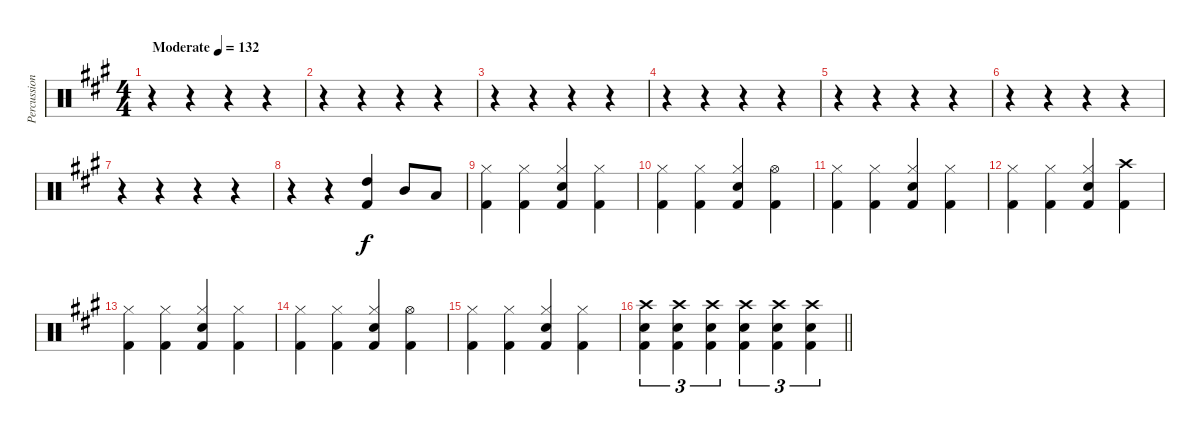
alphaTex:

\track ("Percussion" "Percussion") {instrument percussion}
\staff {score}
\articulation defaults
\ts (4 4)
\tempo (132 "Moderate")
\clef neutral
\ks a
r.4{dy f} r.4 r.4 r.4 |
r.4 r.4 r.4 r.4 |
r.4 r.4 r.4 r.4 |
r.4 r.4 r.4 r.4 |
r.4 r.4 r.4 r.4 |
r.4 r.4 r.4 r.4 |
r.4 r.4 r.4 r.4 |
r.4 r.4 ("Kick (hit) 2" "High Tom (hit)").4 "Mid Tom (hit)".8 "Low Tom (hit)".8 |
("Kick (hit) 2" "Hi-Hat (closed)").4 ("Kick (hit) 2" "Hi-Hat (closed)").4 ("Kick (hit) 2" "Electric Snare (hit)" "Hi-Hat (closed)").4 ("Kick (hit) 2" "Hi-Hat (closed)").4 |
("Kick (hit) 2" "Hi-Hat (closed)").4 ("Kick (hit) 2" "Hi-Hat (closed)").4 ("Kick (hit) 2" "Electric Snare (hit)" "Hi-Hat (closed)").4 ("Kick (hit) 2" "Hi-Hat (open)").4 |
("Kick (hit) 2" "Hi-Hat (closed)").4 ("Kick (hit) 2" "Hi-Hat (closed)").4 ("Kick (hit) 2" "Electric Snare (hit)" "Hi-Hat (closed)").4 ("Kick (hit) 2" "Hi-Hat (closed)").4 |
("Kick (hit) 2" "Hi-Hat (closed)").4 ("Kick (hit) 2" "Hi-Hat (closed)").4 ("Kick (hit) 2" "Electric Snare (hit)" "Hi-Hat (closed)").4 ("Kick (hit) 2" "Crash high (hit)").4 |
("Kick (hit) 2" "Hi-Hat (closed)").4 ("Kick (hit) 2" "Hi-Hat (closed)").4 ("Kick (hit) 2" "Electric Snare (hit)" "Hi-Hat (closed)").4 ("Kick (hit) 2" "Hi-Hat (closed)").4 |
("Kick (hit) 2" "Hi-Hat (closed)").4 ("Kick (hit) 2" "Hi-Hat (closed)").4 ("Kick (hit) 2" "Electric Snare (hit)" "Hi-Hat (closed)").4 ("Kick (hit) 2" "Hi-Hat (open)").4 |
("Kick (hit) 2" "Hi-Hat (closed)").4 ("Kick (hit) 2" "Hi-Hat (closed)").4 ("Kick (hit) 2" "Electric Snare (hit)" "Hi-Hat (closed)").4 ("Kick (hit) 2" "Hi-Hat (closed)").4 |
\barLineRight lightlight
("Kick (hit) 2" "Electric Snare (hit)" "Crash high (hit)").4{tu (3 2)} ("Kick (hit) 2" "Electric Snare (hit)" "Crash high (hit)").4{tu (3 2)} ("Kick (hit) 2" "Electric Snare (hit)" "Crash high (hit)").4{tu (3 2)} ("Kick (hit) 2" "Electric Snare (hit)" "Crash high (hit)").4{tu (3 2)} ("Kick (hit) 2" "Electric Snare (hit)" "Crash high (hit)").4{tu (3 2)} ("Kick (hit) 2" "Electric Snare (hit)" "Crash high (hit)").4{tu (3 2)}
